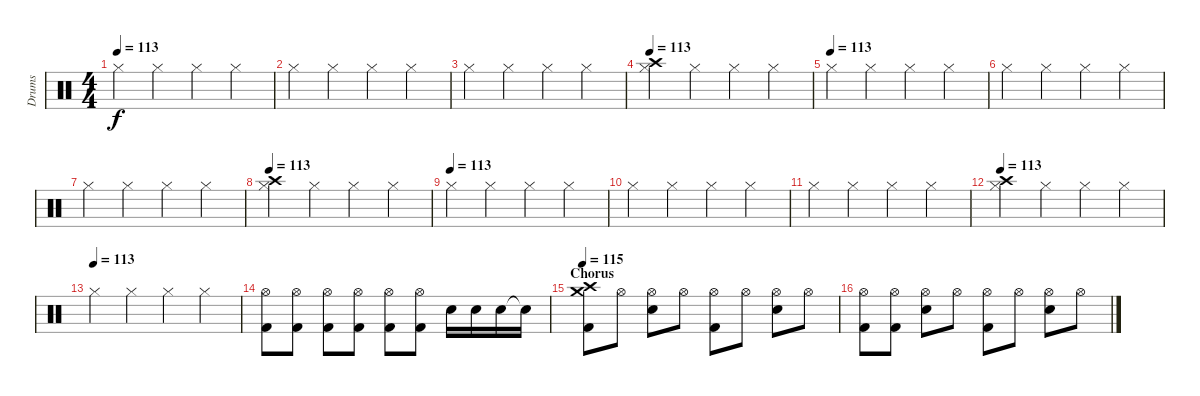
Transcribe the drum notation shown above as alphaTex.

\track ("Drums" "Drums") {instrument percussion}
\staff {score}
\articulation defaults
\ts (4 4)
\tempo 113
\clef neutral
\ks c "Hi-Hat (closed)".4{dy f} "Hi-Hat (closed)".4 "Hi-Hat (closed)".4 "Hi-Hat (closed)".4
|
"Hi-Hat (closed)".4 "Hi-Hat (closed)".4 "Hi-Hat (closed)".4 "Hi-Hat (closed)".4 |
"Hi-Hat (closed)".4 "Hi-Hat (closed)".4 "Hi-Hat (closed)".4 "Hi-Hat (closed)".4 |
\tempo 113
("Hi-Hat (closed)" "Crash high (hit)").4 "Hi-Hat (closed)".4 "Hi-Hat (closed)".4 "Hi-Hat (closed)".4 |
\tempo (113)
"Hi-Hat (closed)".4 "Hi-Hat (closed)".4 "Hi-Hat (closed)".4 "Hi-Hat (closed)".4 |
"Hi-Hat (closed)".4 "Hi-Hat (closed)".4 "Hi-Hat (closed)".4 "Hi-Hat (closed)".4 |
"Hi-Hat (closed)".4 "Hi-Hat (closed)".4 "Hi-Hat (closed)".4 "Hi-Hat (closed)".4 |
\tempo 113
("Hi-Hat (closed)" "Crash high (hit)").4 "Hi-Hat (closed)".4 "Hi-Hat (closed)".4 "Hi-Hat (closed)".4 |
\tempo (113)
"Hi-Hat (closed)".4 "Hi-Hat (closed)".4 "Hi-Hat (closed)".4 "Hi-Hat (closed)".4 |
"Hi-Hat (closed)".4 "Hi-Hat (closed)".4 "Hi-Hat (closed)".4 "Hi-Hat (closed)".4 |
"Hi-Hat (closed)".4 "Hi-Hat (closed)".4 "Hi-Hat (closed)".4 "Hi-Hat (closed)".4 |
\tempo 113
("Hi-Hat (closed)" "Crash high (hit)").4 "Hi-Hat (closed)".4 "Hi-Hat (closed)".4 "Hi-Hat (closed)".4 |
\tempo (113)
"Hi-Hat (closed)".4 "Hi-Hat (closed)".4 "Hi-Hat (closed)".4 "Hi-Hat (closed)".4 |
("Hi-Hat (open)" "Kick (hit) 2").8 ("Hi-Hat (open)" "Kick (hit) 2").8 ("Hi-Hat (open)" "Kick (hit) 2").8 ("Hi-Hat (open)" "Kick (hit) 2").8 ("Hi-Hat (open)" "Kick (hit) 2").8 ("Hi-Hat (open)" "Kick (hit) 2").8 "Electric Snare (hit)".16 "Electric Snare (hit)".16 "Electric Snare (hit)".16 "Electric Snare (hit)"{t}.16 |
\section ("" "Chorus")
\tempo 115
("Crash high (hit)" "Crash medium (hit)" "Kick (hit) 2").8 "Hi-Hat (open)".8 ("Hi-Hat (open)" "Electric Snare (hit)").8 "Hi-Hat (open)".8 ("Hi-Hat (open)" "Kick (hit) 2").8 "Hi-Hat (open)".8 ("Hi-Hat (open)" "Electric Snare (hit)").8 "Hi-Hat (open)".8 |
("Hi-Hat (open)" "Kick (hit) 2").8 ("Hi-Hat (open)" "Kick (hit) 2").8 ("Hi-Hat (open)" "Electric Snare (hit)").8 "Hi-Hat (open)".8 ("Hi-Hat (open)" "Kick (hit) 2").8 "Hi-Hat (open)".8 ("Hi-Hat (open)" "Electric Snare (hit)").8 "Hi-Hat (open)".8
